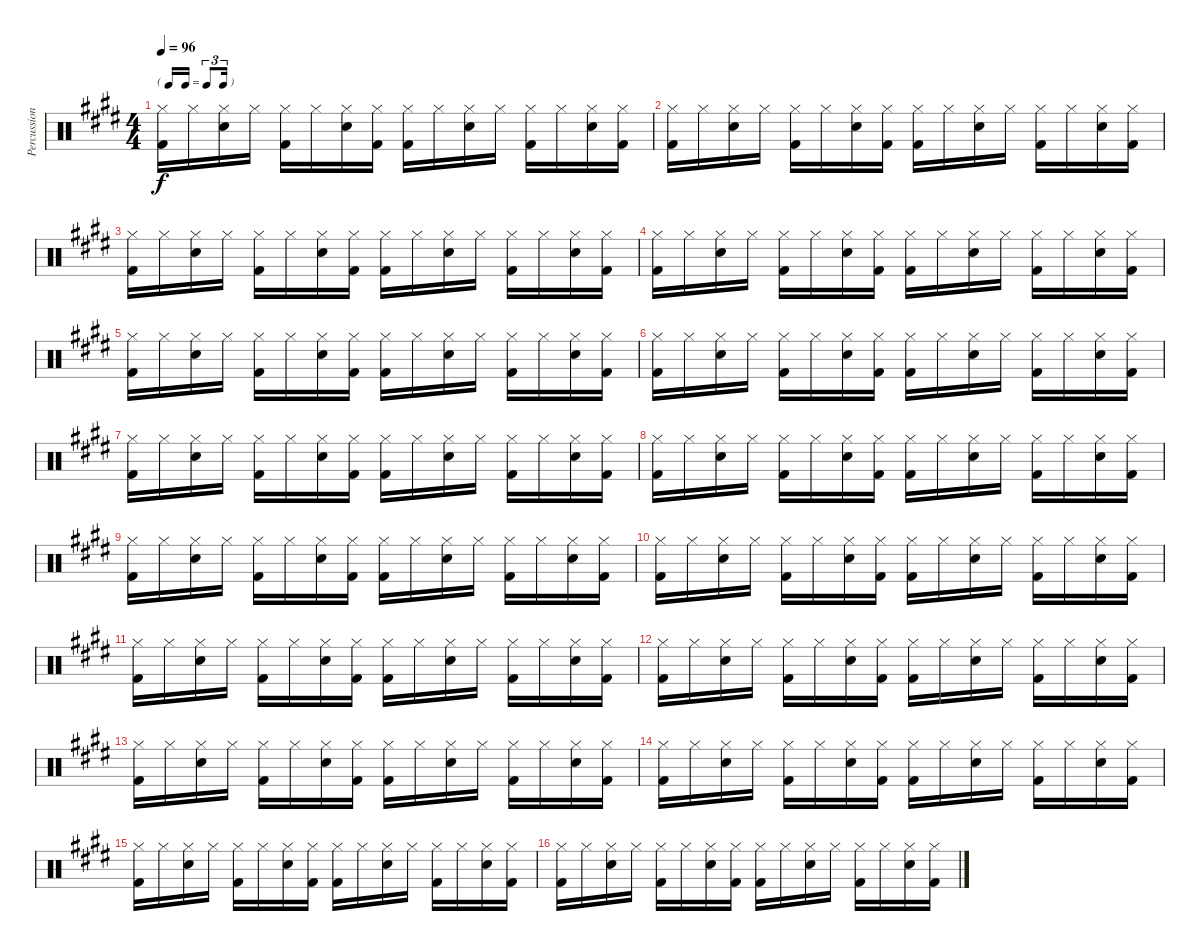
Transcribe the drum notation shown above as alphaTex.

\track ("Percussion" "Percussion") {instrument percussion}
\staff {score}
\articulation defaults
\ts (4 4)
\tf triplet16th
\tempo 96
\clef neutral
\ks e
("Hi-Hat (closed)" "Kick (hit) 2").16{dy f} "Hi-Hat (closed)".16 ("Hi-Hat (closed)" "Snare (hit) 2").16 "Hi-Hat (closed)".16 ("Hi-Hat (closed)" "Kick (hit) 2").16 "Hi-Hat (closed)".16 ("Hi-Hat (closed)" "Snare (hit) 2").16 ("Hi-Hat (closed)" "Kick (hit) 2").16 ("Hi-Hat (closed)" "Kick (hit) 2").16 "Hi-Hat (closed)".16 ("Hi-Hat (closed)" "Snare (hit) 2").16 "Hi-Hat (closed)".16 ("Hi-Hat (closed)" "Kick (hit) 2").16 "Hi-Hat (closed)".16 ("Hi-Hat (closed)" "Snare (hit) 2").16 ("Hi-Hat (closed)" "Kick (hit) 2").16 |
("Hi-Hat (closed)" "Kick (hit) 2").16 "Hi-Hat (closed)".16 ("Hi-Hat (closed)" "Snare (hit) 2").16 "Hi-Hat (closed)".16 ("Hi-Hat (closed)" "Kick (hit) 2").16 "Hi-Hat (closed)".16 ("Hi-Hat (closed)" "Snare (hit) 2").16 ("Hi-Hat (closed)" "Kick (hit) 2").16 ("Hi-Hat (closed)" "Kick (hit) 2").16 "Hi-Hat (closed)".16 ("Hi-Hat (closed)" "Snare (hit) 2").16 "Hi-Hat (closed)".16 ("Hi-Hat (closed)" "Kick (hit) 2").16 "Hi-Hat (closed)".16 ("Hi-Hat (closed)" "Snare (hit) 2").16 ("Hi-Hat (closed)" "Kick (hit) 2").16 |
("Hi-Hat (closed)" "Kick (hit) 2").16 "Hi-Hat (closed)".16 ("Hi-Hat (closed)" "Snare (hit) 2").16 "Hi-Hat (closed)".16 ("Hi-Hat (closed)" "Kick (hit) 2").16 "Hi-Hat (closed)".16 ("Hi-Hat (closed)" "Snare (hit) 2").16 ("Hi-Hat (closed)" "Kick (hit) 2").16 ("Hi-Hat (closed)" "Kick (hit) 2").16 "Hi-Hat (closed)".16 ("Hi-Hat (closed)" "Snare (hit) 2").16 "Hi-Hat (closed)".16 ("Hi-Hat (closed)" "Kick (hit) 2").16 "Hi-Hat (closed)".16 ("Hi-Hat (closed)" "Snare (hit) 2").16 ("Hi-Hat (closed)" "Kick (hit) 2").16 |
("Hi-Hat (closed)" "Kick (hit) 2").16 "Hi-Hat (closed)".16 ("Hi-Hat (closed)" "Snare (hit) 2").16 "Hi-Hat (closed)".16 ("Hi-Hat (closed)" "Kick (hit) 2").16 "Hi-Hat (closed)".16 ("Hi-Hat (closed)" "Snare (hit) 2").16 ("Hi-Hat (closed)" "Kick (hit) 2").16 ("Hi-Hat (closed)" "Kick (hit) 2").16 "Hi-Hat (closed)".16 ("Hi-Hat (closed)" "Snare (hit) 2").16 "Hi-Hat (closed)".16 ("Hi-Hat (closed)" "Kick (hit) 2").16 "Hi-Hat (closed)".16 ("Hi-Hat (closed)" "Snare (hit) 2").16 ("Hi-Hat (closed)" "Kick (hit) 2").16 |
("Hi-Hat (closed)" "Kick (hit) 2").16 "Hi-Hat (closed)".16 ("Hi-Hat (closed)" "Snare (hit) 2").16 "Hi-Hat (closed)".16 ("Hi-Hat (closed)" "Kick (hit) 2").16 "Hi-Hat (closed)".16 ("Hi-Hat (closed)" "Snare (hit) 2").16 ("Hi-Hat (closed)" "Kick (hit) 2").16 ("Hi-Hat (closed)" "Kick (hit) 2").16 "Hi-Hat (closed)".16 ("Hi-Hat (closed)" "Snare (hit) 2").16 "Hi-Hat (closed)".16 ("Hi-Hat (closed)" "Kick (hit) 2").16 "Hi-Hat (closed)".16 ("Hi-Hat (closed)" "Snare (hit) 2").16 ("Hi-Hat (closed)" "Kick (hit) 2").16 |
("Hi-Hat (closed)" "Kick (hit) 2").16 "Hi-Hat (closed)".16 ("Hi-Hat (closed)" "Snare (hit) 2").16 "Hi-Hat (closed)".16 ("Hi-Hat (closed)" "Kick (hit) 2").16 "Hi-Hat (closed)".16 ("Hi-Hat (closed)" "Snare (hit) 2").16 ("Hi-Hat (closed)" "Kick (hit) 2").16 ("Hi-Hat (closed)" "Kick (hit) 2").16 "Hi-Hat (closed)".16 ("Hi-Hat (closed)" "Snare (hit) 2").16 "Hi-Hat (closed)".16 ("Hi-Hat (closed)" "Kick (hit) 2").16 "Hi-Hat (closed)".16 ("Hi-Hat (closed)" "Snare (hit) 2").16 ("Hi-Hat (closed)" "Kick (hit) 2").16 |
("Hi-Hat (closed)" "Kick (hit) 2").16 "Hi-Hat (closed)".16 ("Hi-Hat (closed)" "Snare (hit) 2").16 "Hi-Hat (closed)".16 ("Hi-Hat (closed)" "Kick (hit) 2").16 "Hi-Hat (closed)".16 ("Hi-Hat (closed)" "Snare (hit) 2").16 ("Hi-Hat (closed)" "Kick (hit) 2").16 ("Hi-Hat (closed)" "Kick (hit) 2").16 "Hi-Hat (closed)".16 ("Hi-Hat (closed)" "Snare (hit) 2").16 "Hi-Hat (closed)".16 ("Hi-Hat (closed)" "Kick (hit) 2").16 "Hi-Hat (closed)".16 ("Hi-Hat (closed)" "Snare (hit) 2").16 ("Hi-Hat (closed)" "Kick (hit) 2").16 |
("Hi-Hat (closed)" "Kick (hit) 2").16 "Hi-Hat (closed)".16 ("Hi-Hat (closed)" "Snare (hit) 2").16 "Hi-Hat (closed)".16 ("Hi-Hat (closed)" "Kick (hit) 2").16 "Hi-Hat (closed)".16 ("Hi-Hat (closed)" "Snare (hit) 2").16 ("Hi-Hat (closed)" "Kick (hit) 2").16 ("Hi-Hat (closed)" "Kick (hit) 2").16 "Hi-Hat (closed)".16 ("Hi-Hat (closed)" "Snare (hit) 2").16 "Hi-Hat (closed)".16 ("Hi-Hat (closed)" "Kick (hit) 2").16 "Hi-Hat (closed)".16 ("Hi-Hat (closed)" "Snare (hit) 2").16 ("Hi-Hat (closed)" "Kick (hit) 2").16 |
("Hi-Hat (closed)" "Kick (hit) 2").16 "Hi-Hat (closed)".16 ("Hi-Hat (closed)" "Snare (hit) 2").16 "Hi-Hat (closed)".16 ("Hi-Hat (closed)" "Kick (hit) 2").16 "Hi-Hat (closed)".16 ("Hi-Hat (closed)" "Snare (hit) 2").16 ("Hi-Hat (closed)" "Kick (hit) 2").16 ("Hi-Hat (closed)" "Kick (hit) 2").16 "Hi-Hat (closed)".16 ("Hi-Hat (closed)" "Snare (hit) 2").16 "Hi-Hat (closed)".16 ("Hi-Hat (closed)" "Kick (hit) 2").16 "Hi-Hat (closed)".16 ("Hi-Hat (closed)" "Snare (hit) 2").16 ("Hi-Hat (closed)" "Kick (hit) 2").16 |
("Hi-Hat (closed)" "Kick (hit) 2").16 "Hi-Hat (closed)".16 ("Hi-Hat (closed)" "Snare (hit) 2").16 "Hi-Hat (closed)".16 ("Hi-Hat (closed)" "Kick (hit) 2").16 "Hi-Hat (closed)".16 ("Hi-Hat (closed)" "Snare (hit) 2").16 ("Hi-Hat (closed)" "Kick (hit) 2").16 ("Hi-Hat (closed)" "Kick (hit) 2").16 "Hi-Hat (closed)".16 ("Hi-Hat (closed)" "Snare (hit) 2").16 "Hi-Hat (closed)".16 ("Hi-Hat (closed)" "Kick (hit) 2").16 "Hi-Hat (closed)".16 ("Hi-Hat (closed)" "Snare (hit) 2").16 ("Hi-Hat (closed)" "Kick (hit) 2").16 |
("Hi-Hat (closed)" "Kick (hit) 2").16 "Hi-Hat (closed)".16 ("Hi-Hat (closed)" "Snare (hit) 2").16 "Hi-Hat (closed)".16 ("Hi-Hat (closed)" "Kick (hit) 2").16 "Hi-Hat (closed)".16 ("Hi-Hat (closed)" "Snare (hit) 2").16 ("Hi-Hat (closed)" "Kick (hit) 2").16 ("Hi-Hat (closed)" "Kick (hit) 2").16 "Hi-Hat (closed)".16 ("Hi-Hat (closed)" "Snare (hit) 2").16 "Hi-Hat (closed)".16 ("Hi-Hat (closed)" "Kick (hit) 2").16 "Hi-Hat (closed)".16 ("Hi-Hat (closed)" "Snare (hit) 2").16 ("Hi-Hat (closed)" "Kick (hit) 2").16 |
("Hi-Hat (closed)" "Kick (hit) 2").16 "Hi-Hat (closed)".16 ("Hi-Hat (closed)" "Snare (hit) 2").16 "Hi-Hat (closed)".16 ("Hi-Hat (closed)" "Kick (hit) 2").16 "Hi-Hat (closed)".16 ("Hi-Hat (closed)" "Snare (hit) 2").16 ("Hi-Hat (closed)" "Kick (hit) 2").16 ("Hi-Hat (closed)" "Kick (hit) 2").16 "Hi-Hat (closed)".16 ("Hi-Hat (closed)" "Snare (hit) 2").16 "Hi-Hat (closed)".16 ("Hi-Hat (closed)" "Kick (hit) 2").16 "Hi-Hat (closed)".16 ("Hi-Hat (closed)" "Snare (hit) 2").16 ("Hi-Hat (closed)" "Kick (hit) 2").16 |
("Hi-Hat (closed)" "Kick (hit) 2").16 "Hi-Hat (closed)".16 ("Hi-Hat (closed)" "Snare (hit) 2").16 "Hi-Hat (closed)".16 ("Hi-Hat (closed)" "Kick (hit) 2").16 "Hi-Hat (closed)".16 ("Hi-Hat (closed)" "Snare (hit) 2").16 ("Hi-Hat (closed)" "Kick (hit) 2").16 ("Hi-Hat (closed)" "Kick (hit) 2").16 "Hi-Hat (closed)".16 ("Hi-Hat (closed)" "Snare (hit) 2").16 "Hi-Hat (closed)".16 ("Hi-Hat (closed)" "Kick (hit) 2").16 "Hi-Hat (closed)".16 ("Hi-Hat (closed)" "Snare (hit) 2").16 ("Hi-Hat (closed)" "Kick (hit) 2").16 |
("Hi-Hat (closed)" "Kick (hit) 2").16 "Hi-Hat (closed)".16 ("Hi-Hat (closed)" "Snare (hit) 2").16 "Hi-Hat (closed)".16 ("Hi-Hat (closed)" "Kick (hit) 2").16 "Hi-Hat (closed)".16 ("Hi-Hat (closed)" "Snare (hit) 2").16 ("Hi-Hat (closed)" "Kick (hit) 2").16 ("Hi-Hat (closed)" "Kick (hit) 2").16 "Hi-Hat (closed)".16 ("Hi-Hat (closed)" "Snare (hit) 2").16 "Hi-Hat (closed)".16 ("Hi-Hat (closed)" "Kick (hit) 2").16 "Hi-Hat (closed)".16 ("Hi-Hat (closed)" "Snare (hit) 2").16 ("Hi-Hat (closed)" "Kick (hit) 2").16 |
("Hi-Hat (closed)" "Kick (hit) 2").16 "Hi-Hat (closed)".16 ("Hi-Hat (closed)" "Snare (hit) 2").16 "Hi-Hat (closed)".16 ("Hi-Hat (closed)" "Kick (hit) 2").16 "Hi-Hat (closed)".16 ("Hi-Hat (closed)" "Snare (hit) 2").16 ("Hi-Hat (closed)" "Kick (hit) 2").16 ("Hi-Hat (closed)" "Kick (hit) 2").16 "Hi-Hat (closed)".16 ("Hi-Hat (closed)" "Snare (hit) 2").16 "Hi-Hat (closed)".16 ("Hi-Hat (closed)" "Kick (hit) 2").16 "Hi-Hat (closed)".16 ("Hi-Hat (closed)" "Snare (hit) 2").16 ("Hi-Hat (closed)" "Kick (hit) 2").16 |
("Hi-Hat (closed)" "Kick (hit) 2").16 "Hi-Hat (closed)".16 ("Hi-Hat (closed)" "Snare (hit) 2").16 "Hi-Hat (closed)".16 ("Hi-Hat (closed)" "Kick (hit) 2").16 "Hi-Hat (closed)".16 ("Hi-Hat (closed)" "Snare (hit) 2").16 ("Hi-Hat (closed)" "Kick (hit) 2").16 ("Hi-Hat (closed)" "Kick (hit) 2").16 "Hi-Hat (closed)".16 ("Hi-Hat (closed)" "Snare (hit) 2").16 "Hi-Hat (closed)".16 ("Hi-Hat (closed)" "Kick (hit) 2").16 "Hi-Hat (closed)".16 ("Hi-Hat (closed)" "Snare (hit) 2").16 ("Hi-Hat (closed)" "Kick (hit) 2").16
